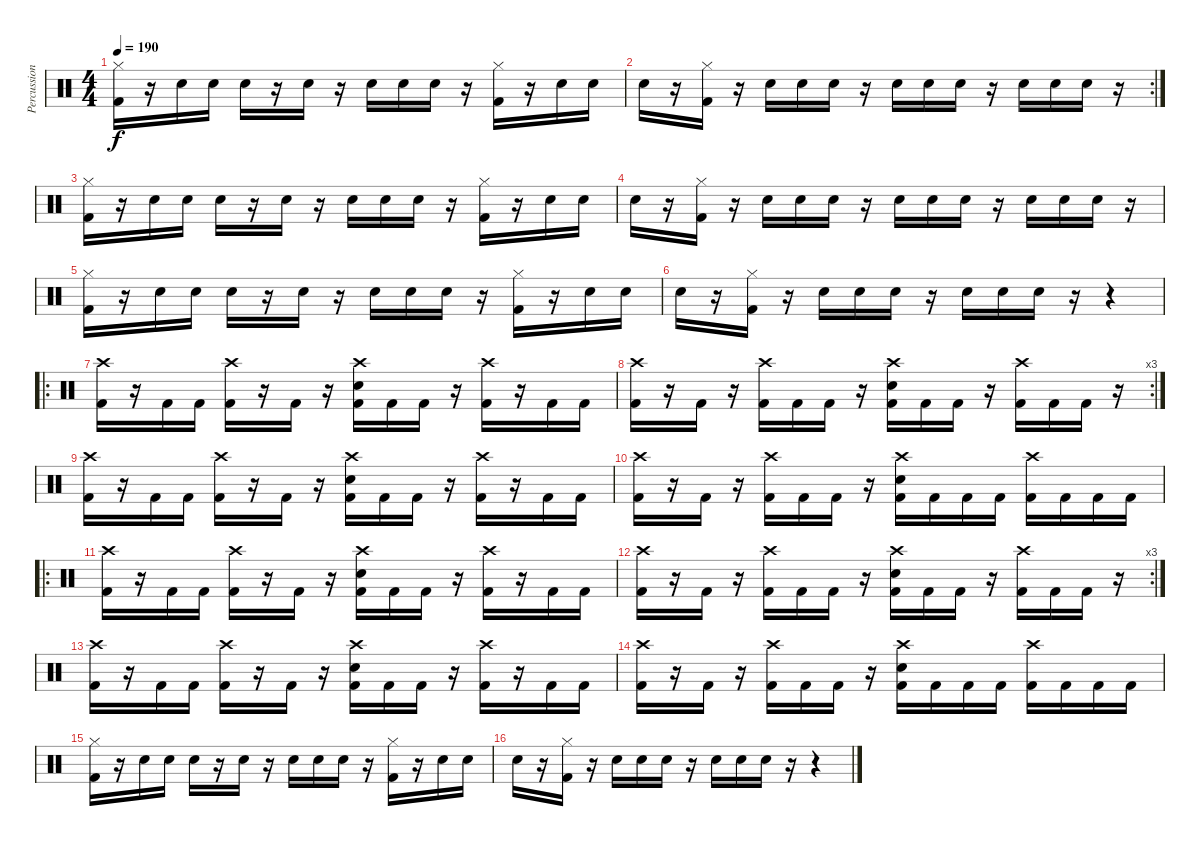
\track ("Percussion" "Percussion") {instrument percussion}
\staff {score}
\articulation defaults
\ts (4 4)
\tempo 190
\clef neutral
\ks c
("Hi-Hat (closed)" "Kick (hit) 2").16{dy f} r.16 "Electric Snare (hit)".16 "Electric Snare (hit)".16 "Electric Snare (hit)".16 r.16 "Electric Snare (hit)".16 r.16 "Electric Snare (hit)".16 "Electric Snare (hit)".16 "Electric Snare (hit)".16 r.16 ("Hi-Hat (closed)" "Kick (hit) 2").16 r.16 "Electric Snare (hit)".16 "Electric Snare (hit)".16 |
\rc 2 "Electric Snare (hit)".16
r.16 ("Hi-Hat (closed)" "Kick (hit) 2").16 r.16 "Electric Snare (hit)".16 "Electric Snare (hit)".16 "Electric Snare (hit)".16 r.16 "Electric Snare (hit)".16 "Electric Snare (hit)".16 "Electric Snare (hit)".16 r.16 "Electric Snare (hit)".16 "Electric Snare (hit)".16 "Electric Snare (hit)".16 r.16 |
("Hi-Hat (closed)" "Kick (hit) 2").16 r.16 "Electric Snare (hit)".16 "Electric Snare (hit)".16 "Electric Snare (hit)".16 r.16 "Electric Snare (hit)".16 r.16 "Electric Snare (hit)".16 "Electric Snare (hit)".16 "Electric Snare (hit)".16 r.16 ("Hi-Hat (closed)" "Kick (hit) 2").16 r.16 "Electric Snare (hit)".16 "Electric Snare (hit)".16 |
"Electric Snare (hit)".16 r.16 ("Hi-Hat (closed)" "Kick (hit) 2").16 r.16 "Electric Snare (hit)".16 "Electric Snare (hit)".16 "Electric Snare (hit)".16 r.16 "Electric Snare (hit)".16 "Electric Snare (hit)".16 "Electric Snare (hit)".16 r.16 "Electric Snare (hit)".16 "Electric Snare (hit)".16 "Electric Snare (hit)".16 r.16 |
("Hi-Hat (closed)" "Kick (hit) 2").16 r.16 "Electric Snare (hit)".16 "Electric Snare (hit)".16 "Electric Snare (hit)".16 r.16 "Electric Snare (hit)".16 r.16 "Electric Snare (hit)".16 "Electric Snare (hit)".16 "Electric Snare (hit)".16 r.16 ("Hi-Hat (closed)" "Kick (hit) 2").16 r.16 "Electric Snare (hit)".16 "Electric Snare (hit)".16 |
"Electric Snare (hit)".16 r.16 ("Hi-Hat (closed)" "Kick (hit) 2").16 r.16 "Electric Snare (hit)".16 "Electric Snare (hit)".16 "Electric Snare (hit)".16 r.16 "Electric Snare (hit)".16 "Electric Snare (hit)".16 "Electric Snare (hit)".16 r.16 r.4 |
\ro
("Crash high (hit)" "Kick (hit) 2").16 r.16 "Kick (hit) 2".16 "Kick (hit) 2".16 ("Crash high (hit)" "Kick (hit) 2").16 r.16 "Kick (hit) 2".16 r.16 ("Crash high (hit)" "Electric Snare (hit)" "Kick (hit) 2").16 "Kick (hit) 2".16 "Kick (hit) 2".16 r.16 ("Crash high (hit)" "Kick (hit) 2").16 r.16 "Kick (hit) 2".16 "Kick (hit) 2".16 |
\rc 3
("Crash high (hit)" "Kick (hit) 2").16 r.16 "Kick (hit) 2".16 r.16 ("Crash high (hit)" "Kick (hit) 2").16 "Kick (hit) 2".16 "Kick (hit) 2".16 r.16 ("Crash high (hit)" "Electric Snare (hit)" "Kick (hit) 2").16 "Kick (hit) 2".16 "Kick (hit) 2".16 r.16 ("Crash high (hit)" "Kick (hit) 2").16 "Kick (hit) 2".16 "Kick (hit) 2".16 r.16 |
("Crash high (hit)" "Kick (hit) 2").16 r.16 "Kick (hit) 2".16 "Kick (hit) 2".16 ("Crash high (hit)" "Kick (hit) 2").16 r.16 "Kick (hit) 2".16 r.16 ("Crash high (hit)" "Electric Snare (hit)" "Kick (hit) 2").16 "Kick (hit) 2".16 "Kick (hit) 2".16 r.16 ("Crash high (hit)" "Kick (hit) 2").16 r.16 "Kick (hit) 2".16 "Kick (hit) 2".16 |
("Crash high (hit)" "Kick (hit) 2").16 r.16 "Kick (hit) 2".16 r.16 ("Crash high (hit)" "Kick (hit) 2").16 "Kick (hit) 2".16 "Kick (hit) 2".16 r.16 ("Crash high (hit)" "Electric Snare (hit)" "Kick (hit) 2").16 "Kick (hit) 2".16 "Kick (hit) 2".16 "Kick (hit) 2".16 ("Crash high (hit)" "Kick (hit) 2").16 "Kick (hit) 2".16 "Kick (hit) 2".16 "Kick (hit) 2".16 |
\ro
("Crash high (hit)" "Kick (hit) 2").16 r.16 "Kick (hit) 2".16 "Kick (hit) 2".16 ("Crash high (hit)" "Kick (hit) 2").16 r.16 "Kick (hit) 2".16 r.16 ("Crash high (hit)" "Electric Snare (hit)" "Kick (hit) 2").16 "Kick (hit) 2".16 "Kick (hit) 2".16 r.16 ("Crash high (hit)" "Kick (hit) 2").16 r.16 "Kick (hit) 2".16 "Kick (hit) 2".16 |
\rc 3
("Crash high (hit)" "Kick (hit) 2").16 r.16 "Kick (hit) 2".16 r.16 ("Crash high (hit)" "Kick (hit) 2").16 "Kick (hit) 2".16 "Kick (hit) 2".16 r.16 ("Crash high (hit)" "Electric Snare (hit)" "Kick (hit) 2").16 "Kick (hit) 2".16 "Kick (hit) 2".16 r.16 ("Crash high (hit)" "Kick (hit) 2").16 "Kick (hit) 2".16 "Kick (hit) 2".16 r.16 |
("Crash high (hit)" "Kick (hit) 2").16 r.16 "Kick (hit) 2".16 "Kick (hit) 2".16 ("Crash high (hit)" "Kick (hit) 2").16 r.16 "Kick (hit) 2".16 r.16 ("Crash high (hit)" "Electric Snare (hit)" "Kick (hit) 2").16 "Kick (hit) 2".16 "Kick (hit) 2".16 r.16 ("Crash high (hit)" "Kick (hit) 2").16 r.16 "Kick (hit) 2".16 "Kick (hit) 2".16 |
("Crash high (hit)" "Kick (hit) 2").16 r.16 "Kick (hit) 2".16 r.16 ("Crash high (hit)" "Kick (hit) 2").16 "Kick (hit) 2".16 "Kick (hit) 2".16 r.16 ("Crash high (hit)" "Electric Snare (hit)" "Kick (hit) 2").16 "Kick (hit) 2".16 "Kick (hit) 2".16 "Kick (hit) 2".16 ("Crash high (hit)" "Kick (hit) 2").16 "Kick (hit) 2".16 "Kick (hit) 2".16 "Kick (hit) 2".16 |
("Hi-Hat (closed)" "Kick (hit) 2").16 r.16 "Electric Snare (hit)".16 "Electric Snare (hit)".16 "Electric Snare (hit)".16 r.16 "Electric Snare (hit)".16 r.16 "Electric Snare (hit)".16 "Electric Snare (hit)".16 "Electric Snare (hit)".16 r.16 ("Hi-Hat (closed)" "Kick (hit) 2").16 r.16 "Electric Snare (hit)".16 "Electric Snare (hit)".16 |
"Electric Snare (hit)".16 r.16 ("Hi-Hat (closed)" "Kick (hit) 2").16 r.16 "Electric Snare (hit)".16 "Electric Snare (hit)".16 "Electric Snare (hit)".16 r.16 "Electric Snare (hit)".16 "Electric Snare (hit)".16 "Electric Snare (hit)".16 r.16 r.4
